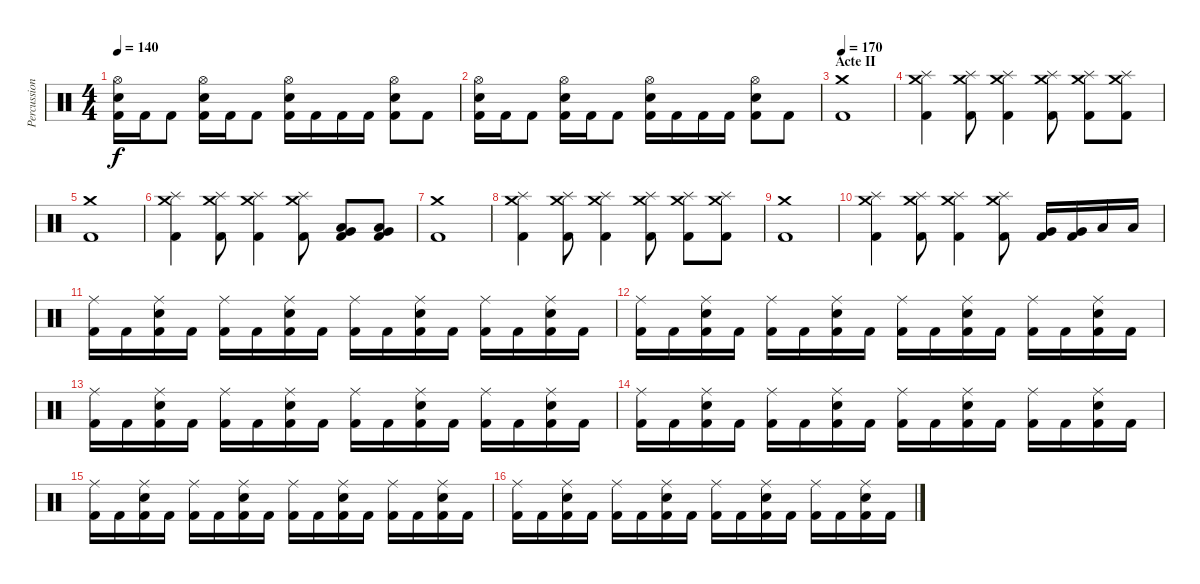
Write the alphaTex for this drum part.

\track ("Percussions" "Percussion") {instrument percussion}
\staff {score}
\articulation defaults
\ts (4 4)
\tempo 140
\clef neutral
\ks c
("Hi-Hat (open)" "Snare (hit) 2" "Kick (hit) 2").16{dy f} "Kick (hit) 2".16 "Kick (hit) 2".8 ("Hi-Hat (open)" "Snare (hit) 2" "Kick (hit) 2").16 "Kick (hit) 2".16 "Kick (hit) 2".8 ("Hi-Hat (open)" "Snare (hit) 2" "Kick (hit) 2").16 "Kick (hit) 2".16 "Kick (hit) 2".16 "Kick (hit) 2".16 ("Hi-Hat (open)" "Snare (hit) 2" "Kick (hit) 2").8 "Kick (hit) 2".8 |
("Hi-Hat (open)" "Snare (hit) 2" "Kick (hit) 2").16 "Kick (hit) 2".16 "Kick (hit) 2".8 ("Hi-Hat (open)" "Snare (hit) 2" "Kick (hit) 2").16 "Kick (hit) 2".16 "Kick (hit) 2".8 ("Hi-Hat (open)" "Snare (hit) 2" "Kick (hit) 2").16 "Kick (hit) 2".16 "Kick (hit) 2".16 "Kick (hit) 2".16 ("Hi-Hat (open)" "Snare (hit) 2" "Kick (hit) 2").8 "Kick (hit) 2".8 |
\section ("" "Acte II")
\tempo 170
("Crash medium (hit)" "Kick (hit) 2").1 |
("Splash (hit)" "Crash medium (hit)" "Kick (hit) 2").4 ("Splash (hit)" "Crash medium (hit)" "Kick (hit) 2").8 ("Splash (hit)" "Crash medium (hit)" "Kick (hit) 2").4 ("Splash (hit)" "Crash medium (hit)" "Kick (hit) 2").8 ("Splash (hit)" "Crash medium (hit)" "Kick (hit) 2").8 ("Splash (hit)" "Crash medium (hit)" "Kick (hit) 2").8 |
("Crash medium (hit)" "Kick (hit) 2").1 |
("Splash (hit)" "Crash medium (hit)" "Kick (hit) 2").4 ("Splash (hit)" "Crash medium (hit)" "Kick (hit) 2").8 ("Splash (hit)" "Crash medium (hit)" "Kick (hit) 2").4 ("Splash (hit)" "Crash medium (hit)" "Kick (hit) 2").8 ("Low Tom (hit)" "Very Low Tom (hit)" "Kick (hit) 2").8 ("Low Tom (hit)" "Very Low Tom (hit)" "Kick (hit) 2").8 |
("Crash medium (hit)" "Kick (hit) 2").1 |
("Splash (hit)" "Crash medium (hit)" "Kick (hit) 2").4 ("Splash (hit)" "Crash medium (hit)" "Kick (hit) 2").8 ("Splash (hit)" "Crash medium (hit)" "Kick (hit) 2").4 ("Splash (hit)" "Crash medium (hit)" "Kick (hit) 2").8 ("Splash (hit)" "Crash medium (hit)" "Kick (hit) 2").8 ("Splash (hit)" "Crash medium (hit)" "Kick (hit) 2").8 |
("Crash medium (hit)" "Kick (hit) 2").1 |
("Splash (hit)" "Crash medium (hit)" "Kick (hit) 2").4 ("Splash (hit)" "Crash medium (hit)" "Kick (hit) 2").8 ("Splash (hit)" "Crash medium (hit)" "Kick (hit) 2").4 ("Splash (hit)" "Crash medium (hit)" "Kick (hit) 2").8 ("Very Low Tom (hit)" "Kick (hit) 2").16 ("Very Low Tom (hit)" "Kick (hit) 2").16 "Low Floor Tom (hit)".16 "Low Floor Tom (hit)".16 |
("Ride (middle)" "Kick (hit) 2").16 "Kick (hit) 2".16 ("Ride (middle)" "Snare (hit) 2" "Kick (hit) 2").16 "Kick (hit) 2".16 ("Ride (middle)" "Kick (hit) 2").16 "Kick (hit) 2".16 ("Ride (middle)" "Snare (hit) 2" "Kick (hit) 2").16 "Kick (hit) 2".16 ("Ride (middle)" "Kick (hit) 2").16 "Kick (hit) 2".16 ("Ride (middle)" "Snare (hit) 2" "Kick (hit) 2").16 "Kick (hit) 2".16 ("Ride (middle)" "Kick (hit) 2").16 "Kick (hit) 2".16 ("Ride (middle)" "Snare (hit) 2" "Kick (hit) 2").16 "Kick (hit) 2".16 |
("Ride (middle)" "Kick (hit) 2").16 "Kick (hit) 2".16 ("Ride (middle)" "Snare (hit) 2" "Kick (hit) 2").16 "Kick (hit) 2".16 ("Ride (middle)" "Kick (hit) 2").16 "Kick (hit) 2".16 ("Ride (middle)" "Snare (hit) 2" "Kick (hit) 2").16 "Kick (hit) 2".16 ("Ride (middle)" "Kick (hit) 2").16 "Kick (hit) 2".16 ("Ride (middle)" "Snare (hit) 2" "Kick (hit) 2").16 "Kick (hit) 2".16 ("Ride (middle)" "Kick (hit) 2").16 "Kick (hit) 2".16 ("Ride (middle)" "Snare (hit) 2" "Kick (hit) 2").16 "Kick (hit) 2".16 |
("Ride (middle)" "Kick (hit) 2").16 "Kick (hit) 2".16 ("Ride (middle)" "Snare (hit) 2" "Kick (hit) 2").16 "Kick (hit) 2".16 ("Ride (middle)" "Kick (hit) 2").16 "Kick (hit) 2".16 ("Ride (middle)" "Snare (hit) 2" "Kick (hit) 2").16 "Kick (hit) 2".16 ("Ride (middle)" "Kick (hit) 2").16 "Kick (hit) 2".16 ("Ride (middle)" "Snare (hit) 2" "Kick (hit) 2").16 "Kick (hit) 2".16 ("Ride (middle)" "Kick (hit) 2").16 "Kick (hit) 2".16 ("Ride (middle)" "Snare (hit) 2" "Kick (hit) 2").16 "Kick (hit) 2".16 |
("Ride (middle)" "Kick (hit) 2").16 "Kick (hit) 2".16 ("Ride (middle)" "Snare (hit) 2" "Kick (hit) 2").16 "Kick (hit) 2".16 ("Ride (middle)" "Kick (hit) 2").16 "Kick (hit) 2".16 ("Ride (middle)" "Snare (hit) 2" "Kick (hit) 2").16 "Kick (hit) 2".16 ("Ride (middle)" "Kick (hit) 2").16 "Kick (hit) 2".16 ("Ride (middle)" "Snare (hit) 2" "Kick (hit) 2").16 "Kick (hit) 2".16 ("Ride (middle)" "Kick (hit) 2").16 "Kick (hit) 2".16 ("Ride (middle)" "Snare (hit) 2" "Kick (hit) 2").16 "Kick (hit) 2".16 |
("Ride (middle)" "Kick (hit) 2").16 "Kick (hit) 2".16 ("Ride (middle)" "Snare (hit) 2" "Kick (hit) 2").16 "Kick (hit) 2".16 ("Ride (middle)" "Kick (hit) 2").16 "Kick (hit) 2".16 ("Ride (middle)" "Snare (hit) 2" "Kick (hit) 2").16 "Kick (hit) 2".16 ("Ride (middle)" "Kick (hit) 2").16 "Kick (hit) 2".16 ("Ride (middle)" "Snare (hit) 2" "Kick (hit) 2").16 "Kick (hit) 2".16 ("Ride (middle)" "Kick (hit) 2").16 "Kick (hit) 2".16 ("Ride (middle)" "Snare (hit) 2" "Kick (hit) 2").16 "Kick (hit) 2".16 |
("Ride (middle)" "Kick (hit) 2").16 "Kick (hit) 2".16 ("Ride (middle)" "Snare (hit) 2" "Kick (hit) 2").16 "Kick (hit) 2".16 ("Ride (middle)" "Kick (hit) 2").16 "Kick (hit) 2".16 ("Ride (middle)" "Snare (hit) 2" "Kick (hit) 2").16 "Kick (hit) 2".16 ("Ride (middle)" "Kick (hit) 2").16 "Kick (hit) 2".16 ("Ride (middle)" "Snare (hit) 2" "Kick (hit) 2").16 "Kick (hit) 2".16 ("Ride (middle)" "Kick (hit) 2").16 "Kick (hit) 2".16 ("Ride (middle)" "Snare (hit) 2" "Kick (hit) 2").16 "Kick (hit) 2".16
